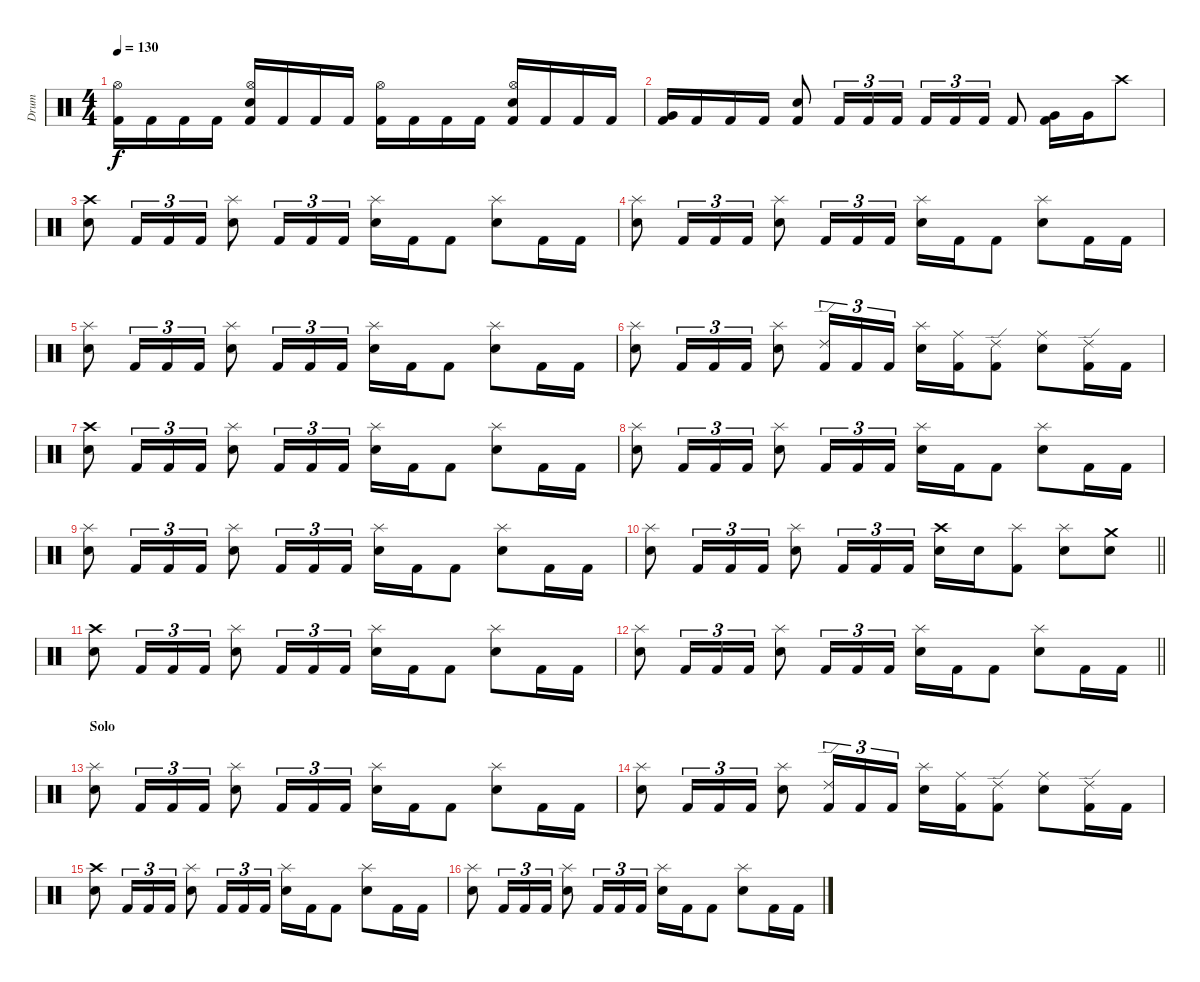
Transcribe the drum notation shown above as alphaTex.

\track ("Drum" "Drum") {instrument percussion}
\staff {score}
\articulation defaults
\ts (4 4)
\tempo 130
\clef neutral
\ks c
("Kick (hit) 2" "Hi-Hat (open)").16{dy f} "Kick (hit) 2".16 "Kick (hit) 2".16 "Kick (hit) 2".16 ("Kick (hit) 2" "Electric Snare (hit)" "Hi-Hat (open)").16 "Kick (hit) 2".16 "Kick (hit) 2".16 "Kick (hit) 2".16 ("Kick (hit) 2" "Hi-Hat (open)").16 "Kick (hit) 2".16 "Kick (hit) 2".16 "Kick (hit) 2".16 ("Kick (hit) 2" "Electric Snare (hit)" "Hi-Hat (open)").16 "Kick (hit) 2".16 "Kick (hit) 2".16 "Kick (hit) 2".16 |
("Kick (hit) 2" "Very Low Tom (hit)").16 "Kick (hit) 2".16 "Kick (hit) 2".16 "Kick (hit) 2".16 ("Kick (hit) 2" "Snare (hit) 2").8 "Kick (hit) 2".16{tu (3 2)} "Kick (hit) 2".16{tu (3 2)} "Kick (hit) 2".16{tu (3 2)} "Kick (hit) 2".16{tu (3 2)} "Kick (hit) 2".16{tu (3 2)} "Kick (hit) 2".16{tu (3 2)} "Kick (hit) 2".8 ("Kick (hit) 2" "Very Low Tom (hit)").16 "Very Low Tom (hit)".16 "Crash high (hit)".8 |
("Electric Snare (hit)" "Crash high (hit)").8 "Kick (hit) 2".16{tu (3 2)} "Kick (hit) 2".16{tu (3 2)} "Kick (hit) 2".16{tu (3 2)} ("Electric Snare (hit)" "Splash (hit)").8 "Kick (hit) 2".16{tu (3 2)} "Kick (hit) 2".16{tu (3 2)} "Kick (hit) 2".16{tu (3 2)} ("Electric Snare (hit)" "Splash (hit)").16 "Kick (hit) 2".16 "Kick (hit) 2".8 ("Electric Snare (hit)" "Splash (hit)").8 "Kick (hit) 2".16 "Kick (hit) 2".16 |
("Electric Snare (hit)" "Splash (hit)").8 "Kick (hit) 2".16{tu (3 2)} "Kick (hit) 2".16{tu (3 2)} "Kick (hit) 2".16{tu (3 2)} ("Electric Snare (hit)" "Splash (hit)").8 "Kick (hit) 2".16{tu (3 2)} "Kick (hit) 2".16{tu (3 2)} "Kick (hit) 2".16{tu (3 2)} ("Electric Snare (hit)" "Splash (hit)").16 "Kick (hit) 2".16 "Kick (hit) 2".8 ("Electric Snare (hit)" "Splash (hit)").8 "Kick (hit) 2".16 "Kick (hit) 2".16 |
("Electric Snare (hit)" "Splash (hit)").8 "Kick (hit) 2".16{tu (3 2)} "Kick (hit) 2".16{tu (3 2)} "Kick (hit) 2".16{tu (3 2)} ("Electric Snare (hit)" "Splash (hit)").8 "Kick (hit) 2".16{tu (3 2)} "Kick (hit) 2".16{tu (3 2)} "Kick (hit) 2".16{tu (3 2)} ("Electric Snare (hit)" "Splash (hit)").16 "Kick (hit) 2".16 "Kick (hit) 2".8 ("Electric Snare (hit)" "Splash (hit)").8 "Kick (hit) 2".16 "Kick (hit) 2".16 |
("Electric Snare (hit)" "Splash (hit)").8 "Kick (hit) 2".16{tu (3 2)} "Kick (hit) 2".16{tu (3 2)} "Kick (hit) 2".16{tu (3 2)} ("Electric Snare (hit)" "Splash (hit)").8 ("Kick (hit) 2" "Ride (edge) 2").16{tu (3 2)} "Kick (hit) 2".16{tu (3 2)} "Kick (hit) 2".16{tu (3 2)} ("Electric Snare (hit)" "Splash (hit)").16 ("Kick (hit) 2" "Ride (middle)").16 ("Kick (hit) 2" "Ride (edge) 2").8 ("Electric Snare (hit)" "Ride (middle)").8 ("Kick (hit) 2" "Ride (edge) 2").16 "Kick (hit) 2".16 |
("Electric Snare (hit)" "Crash high (hit)").8 "Kick (hit) 2".16{tu (3 2)} "Kick (hit) 2".16{tu (3 2)} "Kick (hit) 2".16{tu (3 2)} ("Electric Snare (hit)" "Splash (hit)").8 "Kick (hit) 2".16{tu (3 2)} "Kick (hit) 2".16{tu (3 2)} "Kick (hit) 2".16{tu (3 2)} ("Electric Snare (hit)" "Splash (hit)").16 "Kick (hit) 2".16 "Kick (hit) 2".8 ("Electric Snare (hit)" "Splash (hit)").8 "Kick (hit) 2".16 "Kick (hit) 2".16 |
("Electric Snare (hit)" "Splash (hit)").8 "Kick (hit) 2".16{tu (3 2)} "Kick (hit) 2".16{tu (3 2)} "Kick (hit) 2".16{tu (3 2)} ("Electric Snare (hit)" "Splash (hit)").8 "Kick (hit) 2".16{tu (3 2)} "Kick (hit) 2".16{tu (3 2)} "Kick (hit) 2".16{tu (3 2)} ("Electric Snare (hit)" "Splash (hit)").16 "Kick (hit) 2".16 "Kick (hit) 2".8 ("Electric Snare (hit)" "Splash (hit)").8 "Kick (hit) 2".16 "Kick (hit) 2".16 |
("Electric Snare (hit)" "Splash (hit)").8 "Kick (hit) 2".16{tu (3 2)} "Kick (hit) 2".16{tu (3 2)} "Kick (hit) 2".16{tu (3 2)} ("Electric Snare (hit)" "Splash (hit)").8 "Kick (hit) 2".16{tu (3 2)} "Kick (hit) 2".16{tu (3 2)} "Kick (hit) 2".16{tu (3 2)} ("Electric Snare (hit)" "Splash (hit)").16 "Kick (hit) 2".16 "Kick (hit) 2".8 ("Electric Snare (hit)" "Splash (hit)").8 "Kick (hit) 2".16 "Kick (hit) 2".16 |
\barLineRight lightlight
("Electric Snare (hit)" "Splash (hit)").8 "Kick (hit) 2".16{tu (3 2)} "Kick (hit) 2".16{tu (3 2)} "Kick (hit) 2".16{tu (3 2)} ("Electric Snare (hit)" "Splash (hit)").8 "Kick (hit) 2".16{tu (3 2)} "Kick (hit) 2".16{tu (3 2)} "Kick (hit) 2".16{tu (3 2)} ("Electric Snare (hit)" "Crash high (hit)").16 "Electric Snare (hit)".16 ("Kick (hit) 2" "Splash (hit)").8 ("Electric Snare (hit)" "Splash (hit)").8 ("Electric Snare (hit)" "Crash medium (hit)").8 |
("Electric Snare (hit)" "Crash high (hit)").8 "Kick (hit) 2".16{tu (3 2)} "Kick (hit) 2".16{tu (3 2)} "Kick (hit) 2".16{tu (3 2)} ("Electric Snare (hit)" "Splash (hit)").8 "Kick (hit) 2".16{tu (3 2)} "Kick (hit) 2".16{tu (3 2)} "Kick (hit) 2".16{tu (3 2)} ("Electric Snare (hit)" "Splash (hit)").16 "Kick (hit) 2".16 "Kick (hit) 2".8 ("Electric Snare (hit)" "Splash (hit)").8 "Kick (hit) 2".16 "Kick (hit) 2".16 |
\barLineRight lightlight
("Electric Snare (hit)" "Splash (hit)").8 "Kick (hit) 2".16{tu (3 2)} "Kick (hit) 2".16{tu (3 2)} "Kick (hit) 2".16{tu (3 2)} ("Electric Snare (hit)" "Splash (hit)").8 "Kick (hit) 2".16{tu (3 2)} "Kick (hit) 2".16{tu (3 2)} "Kick (hit) 2".16{tu (3 2)} ("Electric Snare (hit)" "Splash (hit)").16 "Kick (hit) 2".16 "Kick (hit) 2".8 ("Electric Snare (hit)" "Splash (hit)").8 "Kick (hit) 2".16 "Kick (hit) 2".16 |
\section ("" "Solo")
("Electric Snare (hit)" "Splash (hit)").8 "Kick (hit) 2".16{tu (3 2)} "Kick (hit) 2".16{tu (3 2)} "Kick (hit) 2".16{tu (3 2)} ("Electric Snare (hit)" "Splash (hit)").8 "Kick (hit) 2".16{tu (3 2)} "Kick (hit) 2".16{tu (3 2)} "Kick (hit) 2".16{tu (3 2)} ("Electric Snare (hit)" "Splash (hit)").16 "Kick (hit) 2".16 "Kick (hit) 2".8 ("Electric Snare (hit)" "Splash (hit)").8 "Kick (hit) 2".16 "Kick (hit) 2".16 |
("Electric Snare (hit)" "Splash (hit)").8 "Kick (hit) 2".16{tu (3 2)} "Kick (hit) 2".16{tu (3 2)} "Kick (hit) 2".16{tu (3 2)} ("Electric Snare (hit)" "Splash (hit)").8 ("Kick (hit) 2" "Ride (edge) 2").16{tu (3 2)} "Kick (hit) 2".16{tu (3 2)} "Kick (hit) 2".16{tu (3 2)} ("Electric Snare (hit)" "Splash (hit)").16 ("Kick (hit) 2" "Ride (middle)").16 ("Kick (hit) 2" "Ride (edge) 2").8 ("Electric Snare (hit)" "Ride (middle)").8 ("Kick (hit) 2" "Ride (edge) 2").16 "Kick (hit) 2".16 |
("Electric Snare (hit)" "Crash high (hit)").8 "Kick (hit) 2".16{tu (3 2)} "Kick (hit) 2".16{tu (3 2)} "Kick (hit) 2".16{tu (3 2)} ("Electric Snare (hit)" "Splash (hit)").8 "Kick (hit) 2".16{tu (3 2)} "Kick (hit) 2".16{tu (3 2)} "Kick (hit) 2".16{tu (3 2)} ("Electric Snare (hit)" "Splash (hit)").16 "Kick (hit) 2".16 "Kick (hit) 2".8 ("Electric Snare (hit)" "Splash (hit)").8 "Kick (hit) 2".16 "Kick (hit) 2".16 |
("Electric Snare (hit)" "Splash (hit)").8 "Kick (hit) 2".16{tu (3 2)} "Kick (hit) 2".16{tu (3 2)} "Kick (hit) 2".16{tu (3 2)} ("Electric Snare (hit)" "Splash (hit)").8 "Kick (hit) 2".16{tu (3 2)} "Kick (hit) 2".16{tu (3 2)} "Kick (hit) 2".16{tu (3 2)} ("Electric Snare (hit)" "Splash (hit)").16 "Kick (hit) 2".16 "Kick (hit) 2".8 ("Electric Snare (hit)" "Splash (hit)").8 "Kick (hit) 2".16 "Kick (hit) 2".16
